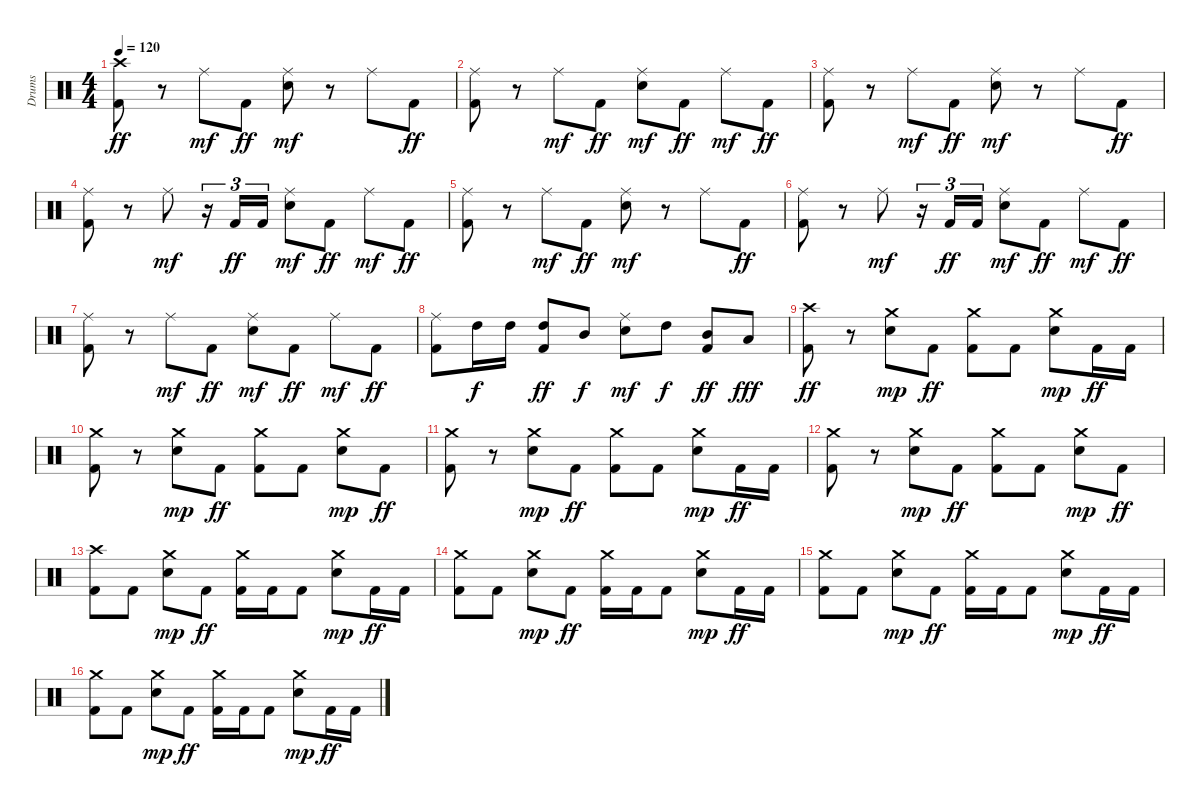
\track ("Drums" "Drums") {instrument percussion}
\staff {score}
\articulation defaults
\ts (4 4)
\tempo 120
\clef neutral
\ks c
("Crash high (hit)" "Kick (hit) 2").8{dy ff} r.8 "Ride (middle)".8{dy mf} "Kick (hit) 2".8{dy ff} ("Ride (middle)" "Electric Snare (hit)").8{dy mf} r.8 "Ride (middle)".8 "Kick (hit) 2".8{dy ff} |
("Ride (middle)" "Kick (hit) 2").8 r.8 "Ride (middle)".8{dy mf} "Kick (hit) 2".8{dy ff} ("Ride (middle)" "Electric Snare (hit)").8{dy mf} "Kick (hit) 2".8{dy ff} "Ride (middle)".8{dy mf} "Kick (hit) 2".8{dy ff} |
("Ride (middle)" "Kick (hit) 2").8 r.8 "Ride (middle)".8{dy mf} "Kick (hit) 2".8{dy ff} ("Ride (middle)" "Electric Snare (hit)").8{dy mf} r.8 "Ride (middle)".8 "Kick (hit) 2".8{dy ff} |
("Ride (middle)" "Kick (hit) 2").8 r.8 "Ride (middle)".8{dy mf} r.16{tu (3 2)} "Kick (hit) 2".16{tu (3 2) dy ff} "Kick (hit) 2".16{tu (3 2)} ("Ride (middle)" "Electric Snare (hit)").8{dy mf} "Kick (hit) 2".8{dy ff} "Ride (middle)".8{dy mf} "Kick (hit) 2".8{dy ff} |
("Ride (middle)" "Kick (hit) 2").8 r.8 "Ride (middle)".8{dy mf} "Kick (hit) 2".8{dy ff} ("Ride (middle)" "Electric Snare (hit)").8{dy mf} r.8 "Ride (middle)".8 "Kick (hit) 2".8{dy ff} |
("Ride (middle)" "Kick (hit) 2").8 r.8 "Ride (middle)".8{dy mf} r.16{tu (3 2)} "Kick (hit) 2".16{tu (3 2) dy ff} "Kick (hit) 2".16{tu (3 2)} ("Ride (middle)" "Electric Snare (hit)").8{dy mf} "Kick (hit) 2".8{dy ff} "Ride (middle)".8{dy mf} "Kick (hit) 2".8{dy ff} |
("Ride (middle)" "Kick (hit) 2").8 r.8 "Ride (middle)".8{dy mf} "Kick (hit) 2".8{dy ff} ("Ride (middle)" "Electric Snare (hit)").8{dy mf} "Kick (hit) 2".8{dy ff} "Ride (middle)".8{dy mf} "Kick (hit) 2".8{dy ff} |
("Ride (middle)" "Kick (hit) 2").8 "High Tom (hit)".16{dy f} "High Tom (hit)".16 ("High Tom (hit)" "Kick (hit) 2").8{dy ff} "Mid Tom (hit)".8{dy f} ("Ride (middle)" "Electric Snare (hit)").8{dy mf} "High Tom (hit)".8{dy f} ("Mid Tom (hit)" "Kick (hit) 2").8{dy ff} "Low Tom (hit)".8{dy fff} |
\section ("" "")
("Crash high (hit)" "Kick (hit) 2").8{dy ff} r.8 ("Crash medium (hit)" "Electric Snare (hit)").8{dy mp} "Kick (hit) 2".8{dy ff} ("Crash medium (hit)" "Kick (hit) 2").8 "Kick (hit) 2".8 ("Crash medium (hit)" "Electric Snare (hit)").8{dy mp} "Kick (hit) 2".16{dy ff} "Kick (hit) 2".16 |
("Crash medium (hit)" "Kick (hit) 2").8 r.8 ("Crash medium (hit)" "Electric Snare (hit)").8{dy mp} "Kick (hit) 2".8{dy ff} ("Crash medium (hit)" "Kick (hit) 2").8 "Kick (hit) 2".8 ("Crash medium (hit)" "Electric Snare (hit)").8{dy mp} "Kick (hit) 2".8{dy ff} |
("Crash medium (hit)" "Kick (hit) 2").8 r.8 ("Crash medium (hit)" "Electric Snare (hit)").8{dy mp} "Kick (hit) 2".8{dy ff} ("Crash medium (hit)" "Kick (hit) 2").8 "Kick (hit) 2".8 ("Crash medium (hit)" "Electric Snare (hit)").8{dy mp} "Kick (hit) 2".16{dy ff} "Kick (hit) 2".16 |
("Crash medium (hit)" "Kick (hit) 2").8 r.8 ("Crash medium (hit)" "Electric Snare (hit)").8{dy mp} "Kick (hit) 2".8{dy ff} ("Crash medium (hit)" "Kick (hit) 2").8 "Kick (hit) 2".8 ("Crash medium (hit)" "Electric Snare (hit)").8{dy mp} "Kick (hit) 2".8{dy ff} |
("Crash high (hit)" "Kick (hit) 2").8 "Kick (hit) 2".8 ("Crash medium (hit)" "Electric Snare (hit)").8{dy mp} "Kick (hit) 2".8{dy ff} ("Crash medium (hit)" "Kick (hit) 2").16 "Kick (hit) 2".16 "Kick (hit) 2".8 ("Crash medium (hit)" "Electric Snare (hit)").8{dy mp} "Kick (hit) 2".16{dy ff} "Kick (hit) 2".16 |
("Crash medium (hit)" "Kick (hit) 2").8 "Kick (hit) 2".8 ("Crash medium (hit)" "Electric Snare (hit)").8{dy mp} "Kick (hit) 2".8{dy ff} ("Crash medium (hit)" "Kick (hit) 2").16 "Kick (hit) 2".16 "Kick (hit) 2".8 ("Crash medium (hit)" "Electric Snare (hit)").8{dy mp} "Kick (hit) 2".16{dy ff} "Kick (hit) 2".16 |
("Crash medium (hit)" "Kick (hit) 2").8 "Kick (hit) 2".8 ("Crash medium (hit)" "Electric Snare (hit)").8{dy mp} "Kick (hit) 2".8{dy ff} ("Crash medium (hit)" "Kick (hit) 2").16 "Kick (hit) 2".16 "Kick (hit) 2".8 ("Crash medium (hit)" "Electric Snare (hit)").8{dy mp} "Kick (hit) 2".16{dy ff} "Kick (hit) 2".16 |
("Crash medium (hit)" "Kick (hit) 2").8 "Kick (hit) 2".8 ("Crash medium (hit)" "Electric Snare (hit)").8{dy mp} "Kick (hit) 2".8{dy ff} ("Crash medium (hit)" "Kick (hit) 2").16 "Kick (hit) 2".16 "Kick (hit) 2".8 ("Crash medium (hit)" "Electric Snare (hit)").8{dy mp} "Kick (hit) 2".16{dy ff} "Kick (hit) 2".16
